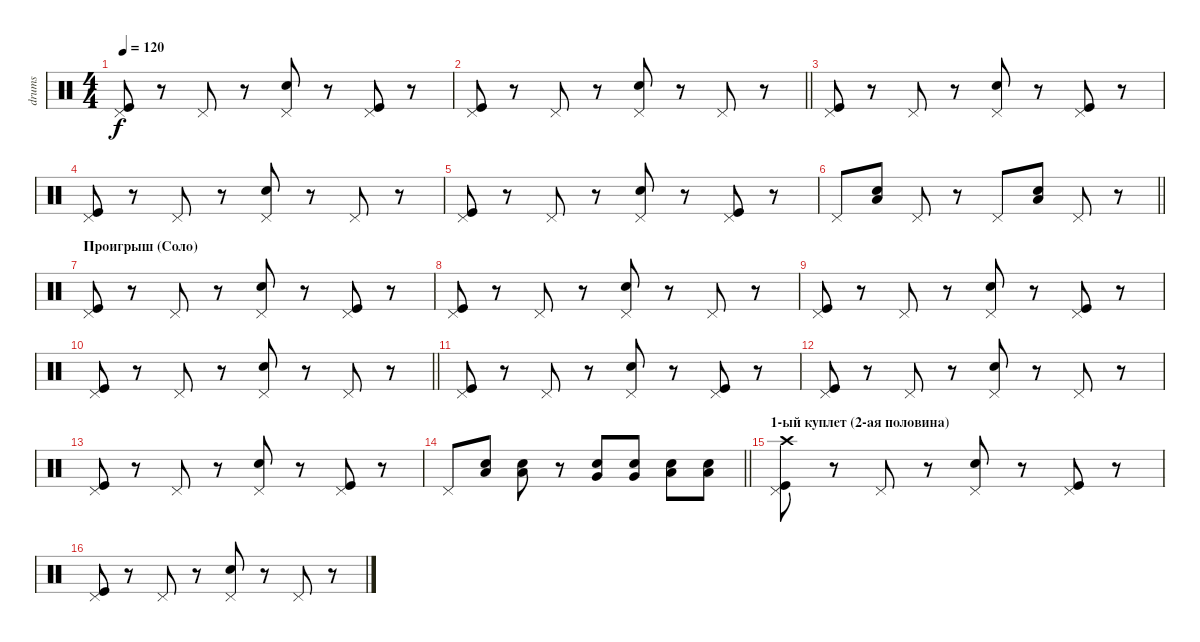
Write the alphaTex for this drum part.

\track ("drums" "drums") {instrument percussion}
\staff {score}
\articulation defaults
\ts (4 4)
\tempo 120
\clef neutral
\ks c
("Kick (hit)" "Pedal Hi-Hat (hit)").8{dy f} r.8 "Pedal Hi-Hat (hit)".8 r.8 ("Snare (hit) 2" "Pedal Hi-Hat (hit)").8 r.8 ("Kick (hit)" "Pedal Hi-Hat (hit)").8 r.8 |
\barLineRight lightlight
("Kick (hit)" "Pedal Hi-Hat (hit)").8 r.8 "Pedal Hi-Hat (hit)".8 r.8 ("Snare (hit) 2" "Pedal Hi-Hat (hit)").8 r.8 "Pedal Hi-Hat (hit)".8 r.8 |
("Kick (hit)" "Pedal Hi-Hat (hit)").8 r.8 "Pedal Hi-Hat (hit)".8 r.8 ("Snare (hit) 2" "Pedal Hi-Hat (hit)").8 r.8 ("Kick (hit)" "Pedal Hi-Hat (hit)").8 r.8 |
("Kick (hit)" "Pedal Hi-Hat (hit)").8 r.8 "Pedal Hi-Hat (hit)".8 r.8 ("Snare (hit) 2" "Pedal Hi-Hat (hit)").8 r.8 "Pedal Hi-Hat (hit)".8 r.8 |
("Kick (hit)" "Pedal Hi-Hat (hit)").8 r.8 "Pedal Hi-Hat (hit)".8 r.8 ("Snare (hit) 2" "Pedal Hi-Hat (hit)").8 r.8 ("Kick (hit)" "Pedal Hi-Hat (hit)").8 r.8 |
\barLineRight lightlight "Pedal Hi-Hat (hit)".8
("Snare (hit) 2" "Low Tom (hit)").8 "Pedal Hi-Hat (hit)".8 r.8 "Pedal Hi-Hat (hit)".8 ("Snare (hit) 2" "Low Tom (hit)").8 "Pedal Hi-Hat (hit)".8 r.8 |
\section ("" "Проигрыш (Соло)")
("Kick (hit)" "Pedal Hi-Hat (hit)").8 r.8 "Pedal Hi-Hat (hit)".8 r.8 ("Snare (hit) 2" "Pedal Hi-Hat (hit)").8 r.8 ("Kick (hit)" "Pedal Hi-Hat (hit)").8 r.8 |
("Kick (hit)" "Pedal Hi-Hat (hit)").8 r.8 "Pedal Hi-Hat (hit)".8 r.8 ("Snare (hit) 2" "Pedal Hi-Hat (hit)").8 r.8 "Pedal Hi-Hat (hit)".8 r.8 |
("Kick (hit)" "Pedal Hi-Hat (hit)").8 r.8 "Pedal Hi-Hat (hit)".8 r.8 ("Snare (hit) 2" "Pedal Hi-Hat (hit)").8 r.8 ("Kick (hit)" "Pedal Hi-Hat (hit)").8 r.8 |
\barLineRight lightlight
("Kick (hit)" "Pedal Hi-Hat (hit)").8 r.8 "Pedal Hi-Hat (hit)".8 r.8 ("Snare (hit) 2" "Pedal Hi-Hat (hit)").8 r.8 "Pedal Hi-Hat (hit)".8 r.8 |
("Kick (hit)" "Pedal Hi-Hat (hit)").8 r.8 "Pedal Hi-Hat (hit)".8 r.8 ("Snare (hit) 2" "Pedal Hi-Hat (hit)").8 r.8 ("Kick (hit)" "Pedal Hi-Hat (hit)").8 r.8 |
("Kick (hit)" "Pedal Hi-Hat (hit)").8 r.8 "Pedal Hi-Hat (hit)".8 r.8 ("Snare (hit) 2" "Pedal Hi-Hat (hit)").8 r.8 "Pedal Hi-Hat (hit)".8 r.8 |
("Kick (hit)" "Pedal Hi-Hat (hit)").8 r.8 "Pedal Hi-Hat (hit)".8 r.8 ("Snare (hit) 2" "Pedal Hi-Hat (hit)").8 r.8 ("Kick (hit)" "Pedal Hi-Hat (hit)").8 r.8 |
\barLineRight lightlight "Pedal Hi-Hat (hit)".8
("Snare (hit) 2" "Low Tom (hit)").8 ("Snare (hit) 2" "Low Tom (hit)").8 r.8 ("Snare (hit) 2" "Very Low Tom (hit)").8 ("Snare (hit) 2" "Very Low Tom (hit)").8 ("Snare (hit) 2" "Low Floor Tom (hit)").8 ("Snare (hit) 2" "Low Floor Tom (hit)").8 |
\section ("" "1-ый куплет (2-ая половина)")
("Kick (hit)" "Crash high (hit)" "Pedal Hi-Hat (hit)").8 r.8 "Pedal Hi-Hat (hit)".8 r.8 ("Snare (hit) 2" "Pedal Hi-Hat (hit)").8 r.8 ("Kick (hit)" "Pedal Hi-Hat (hit)").8 r.8 |
("Kick (hit)" "Pedal Hi-Hat (hit)").8 r.8 "Pedal Hi-Hat (hit)".8 r.8 ("Snare (hit) 2" "Pedal Hi-Hat (hit)").8 r.8 "Pedal Hi-Hat (hit)".8 r.8
